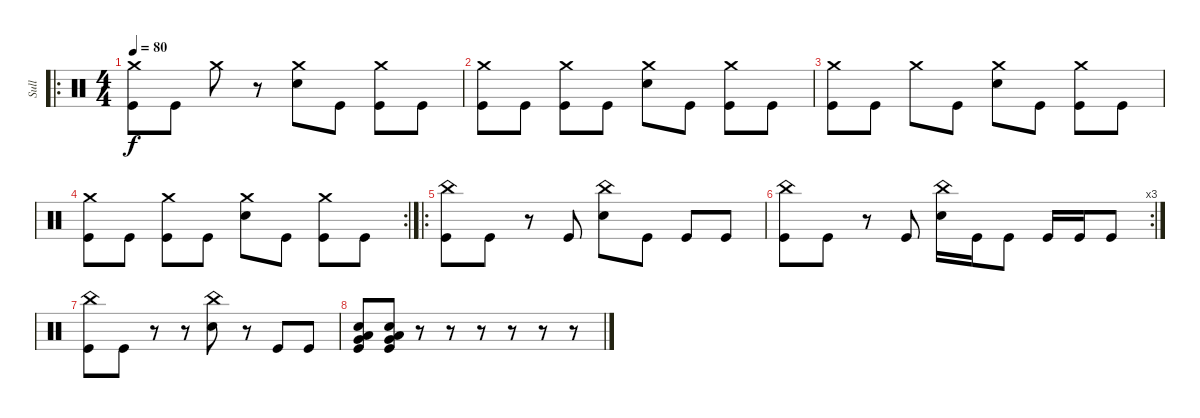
\track ("Sull" "Sull") {instrument percussion}
\staff {score}
\articulation defaults
\ro
\ts (4 4)
\tempo 80
\clef neutral
\ks c
("Crash medium (hit)" "Kick (hit)").8{dy f} "Kick (hit)".8 "Crash medium (hit)".8 r.8 ("Crash medium (hit)" "Electric Snare (hit)").8 "Kick (hit)".8 ("Crash medium (hit)" "Kick (hit)").8 "Kick (hit)".8 |
("Crash medium (hit)" "Kick (hit)").8 "Kick (hit)".8 ("Crash medium (hit)" "Kick (hit)").8 "Kick (hit)".8 ("Crash medium (hit)" "Electric Snare (hit)").8 "Kick (hit)".8 ("Crash medium (hit)" "Kick (hit)").8 "Kick (hit)".8 |
("Crash medium (hit)" "Kick (hit)").8 "Kick (hit)".8 "Crash medium (hit)".8 "Kick (hit)".8 ("Crash medium (hit)" "Electric Snare (hit)").8 "Kick (hit)".8 ("Crash medium (hit)" "Kick (hit)").8 "Kick (hit)".8 |
\rc 2
("Crash medium (hit)" "Kick (hit)").8 "Kick (hit)".8 ("Crash medium (hit)" "Kick (hit)").8 "Kick (hit)".8 ("Crash medium (hit)" "Electric Snare (hit)").8 "Kick (hit)".8 ("Crash medium (hit)" "Kick (hit)").8 "Kick (hit)".8 |
\ro
("China (hit)" "Kick (hit)").8 "Kick (hit)".8 r.8 "Kick (hit)".8 ("China (hit)" "Electric Snare (hit)").8 "Kick (hit)".8 "Kick (hit)".8 "Kick (hit)".8 |
\rc 3
("China (hit)" "Kick (hit)").8 "Kick (hit)".8 r.8 "Kick (hit)".8 ("China (hit)" "Electric Snare (hit)").16 "Kick (hit)".16 "Kick (hit)".8 "Kick (hit)".16 "Kick (hit)".16 "Kick (hit)".8 |
("China (hit)" "Kick (hit)").8 "Kick (hit)".8 r.8 r.8 ("China (hit)" "Electric Snare (hit)").8 r.8 "Kick (hit)".8 "Kick (hit)".8 |
("Electric Snare (hit)" "Low Tom (hit)" "Very Low Tom (hit)" "Kick (hit)").8 ("Electric Snare (hit)" "Low Tom (hit)" "Very Low Tom (hit)" "Kick (hit)").8 r.8 r.8 r.8 r.8 r.8 r.8
